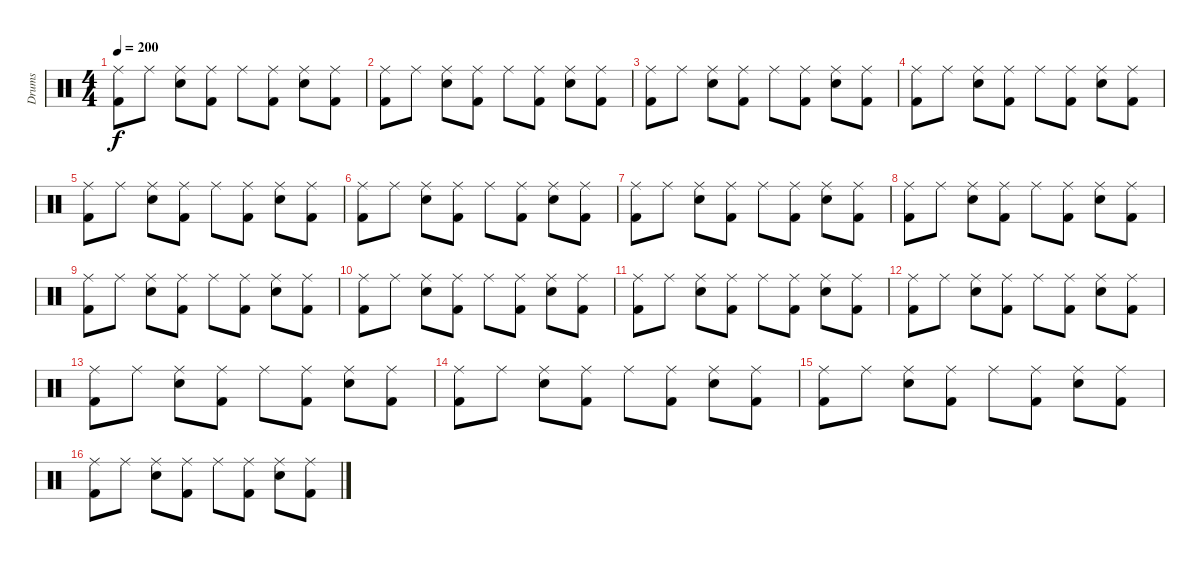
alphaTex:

\track ("Drums" "Drums") {instrument percussion}
\staff {score}
\articulation defaults
\ts (4 4)
\tempo 200
\clef neutral
\ks c
("Kick (hit) 2" "Ride (middle)").8{dy f} "Ride (middle)".8 ("Electric Snare (hit)" "Ride (middle)").8 ("Kick (hit) 2" "Ride (middle)").8 "Ride (middle)".8 ("Kick (hit) 2" "Ride (middle)").8 ("Electric Snare (hit)" "Ride (middle)").8 ("Kick (hit) 2" "Ride (middle)").8 |
("Kick (hit) 2" "Ride (middle)").8 "Ride (middle)".8 ("Electric Snare (hit)" "Ride (middle)").8 ("Kick (hit) 2" "Ride (middle)").8 "Ride (middle)".8 ("Kick (hit) 2" "Ride (middle)").8 ("Electric Snare (hit)" "Ride (middle)").8 ("Kick (hit) 2" "Ride (middle)").8 |
("Kick (hit) 2" "Ride (middle)").8 "Ride (middle)".8 ("Electric Snare (hit)" "Ride (middle)").8 ("Kick (hit) 2" "Ride (middle)").8 "Ride (middle)".8 ("Kick (hit) 2" "Ride (middle)").8 ("Electric Snare (hit)" "Ride (middle)").8 ("Kick (hit) 2" "Ride (middle)").8 |
("Kick (hit) 2" "Ride (middle)").8 "Ride (middle)".8 ("Electric Snare (hit)" "Ride (middle)").8 ("Kick (hit) 2" "Ride (middle)").8 "Ride (middle)".8 ("Kick (hit) 2" "Ride (middle)").8 ("Electric Snare (hit)" "Ride (middle)").8 ("Kick (hit) 2" "Ride (middle)").8 |
("Kick (hit) 2" "Ride (middle)").8 "Ride (middle)".8 ("Electric Snare (hit)" "Ride (middle)").8 ("Kick (hit) 2" "Ride (middle)").8 "Ride (middle)".8 ("Kick (hit) 2" "Ride (middle)").8 ("Electric Snare (hit)" "Ride (middle)").8 ("Kick (hit) 2" "Ride (middle)").8 |
("Kick (hit) 2" "Ride (middle)").8 "Ride (middle)".8 ("Electric Snare (hit)" "Ride (middle)").8 ("Kick (hit) 2" "Ride (middle)").8 "Ride (middle)".8 ("Kick (hit) 2" "Ride (middle)").8 ("Electric Snare (hit)" "Ride (middle)").8 ("Kick (hit) 2" "Ride (middle)").8 |
("Kick (hit) 2" "Ride (middle)").8 "Ride (middle)".8 ("Electric Snare (hit)" "Ride (middle)").8 ("Kick (hit) 2" "Ride (middle)").8 "Ride (middle)".8 ("Kick (hit) 2" "Ride (middle)").8 ("Electric Snare (hit)" "Ride (middle)").8 ("Kick (hit) 2" "Ride (middle)").8 |
("Kick (hit) 2" "Ride (middle)").8 "Ride (middle)".8 ("Electric Snare (hit)" "Ride (middle)").8 ("Kick (hit) 2" "Ride (middle)").8 "Ride (middle)".8 ("Kick (hit) 2" "Ride (middle)").8 ("Electric Snare (hit)" "Ride (middle)").8 ("Kick (hit) 2" "Ride (middle)").8 |
("Kick (hit) 2" "Ride (middle)").8 "Ride (middle)".8 ("Electric Snare (hit)" "Ride (middle)").8 ("Kick (hit) 2" "Ride (middle)").8 "Ride (middle)".8 ("Kick (hit) 2" "Ride (middle)").8 ("Electric Snare (hit)" "Ride (middle)").8 ("Kick (hit) 2" "Ride (middle)").8 |
("Kick (hit) 2" "Ride (middle)").8 "Ride (middle)".8 ("Electric Snare (hit)" "Ride (middle)").8 ("Kick (hit) 2" "Ride (middle)").8 "Ride (middle)".8 ("Kick (hit) 2" "Ride (middle)").8 ("Electric Snare (hit)" "Ride (middle)").8 ("Kick (hit) 2" "Ride (middle)").8 |
("Kick (hit) 2" "Ride (middle)").8 "Ride (middle)".8 ("Electric Snare (hit)" "Ride (middle)").8 ("Kick (hit) 2" "Ride (middle)").8 "Ride (middle)".8 ("Kick (hit) 2" "Ride (middle)").8 ("Electric Snare (hit)" "Ride (middle)").8 ("Kick (hit) 2" "Ride (middle)").8 |
("Kick (hit) 2" "Ride (middle)").8 "Ride (middle)".8 ("Electric Snare (hit)" "Ride (middle)").8 ("Kick (hit) 2" "Ride (middle)").8 "Ride (middle)".8 ("Kick (hit) 2" "Ride (middle)").8 ("Electric Snare (hit)" "Ride (middle)").8 ("Kick (hit) 2" "Ride (middle)").8 |
("Kick (hit) 2" "Ride (middle)").8 "Ride (middle)".8 ("Electric Snare (hit)" "Ride (middle)").8 ("Kick (hit) 2" "Ride (middle)").8 "Ride (middle)".8 ("Kick (hit) 2" "Ride (middle)").8 ("Electric Snare (hit)" "Ride (middle)").8 ("Kick (hit) 2" "Ride (middle)").8 |
("Kick (hit) 2" "Ride (middle)").8 "Ride (middle)".8 ("Electric Snare (hit)" "Ride (middle)").8 ("Kick (hit) 2" "Ride (middle)").8 "Ride (middle)".8 ("Kick (hit) 2" "Ride (middle)").8 ("Electric Snare (hit)" "Ride (middle)").8 ("Kick (hit) 2" "Ride (middle)").8 |
("Kick (hit) 2" "Ride (middle)").8 "Ride (middle)".8 ("Electric Snare (hit)" "Ride (middle)").8 ("Kick (hit) 2" "Ride (middle)").8 "Ride (middle)".8 ("Kick (hit) 2" "Ride (middle)").8 ("Electric Snare (hit)" "Ride (middle)").8 ("Kick (hit) 2" "Ride (middle)").8 |
("Kick (hit) 2" "Ride (middle)").8 "Ride (middle)".8 ("Electric Snare (hit)" "Ride (middle)").8 ("Kick (hit) 2" "Ride (middle)").8 "Ride (middle)".8 ("Kick (hit) 2" "Ride (middle)").8 ("Electric Snare (hit)" "Ride (middle)").8 ("Kick (hit) 2" "Ride (middle)").8
